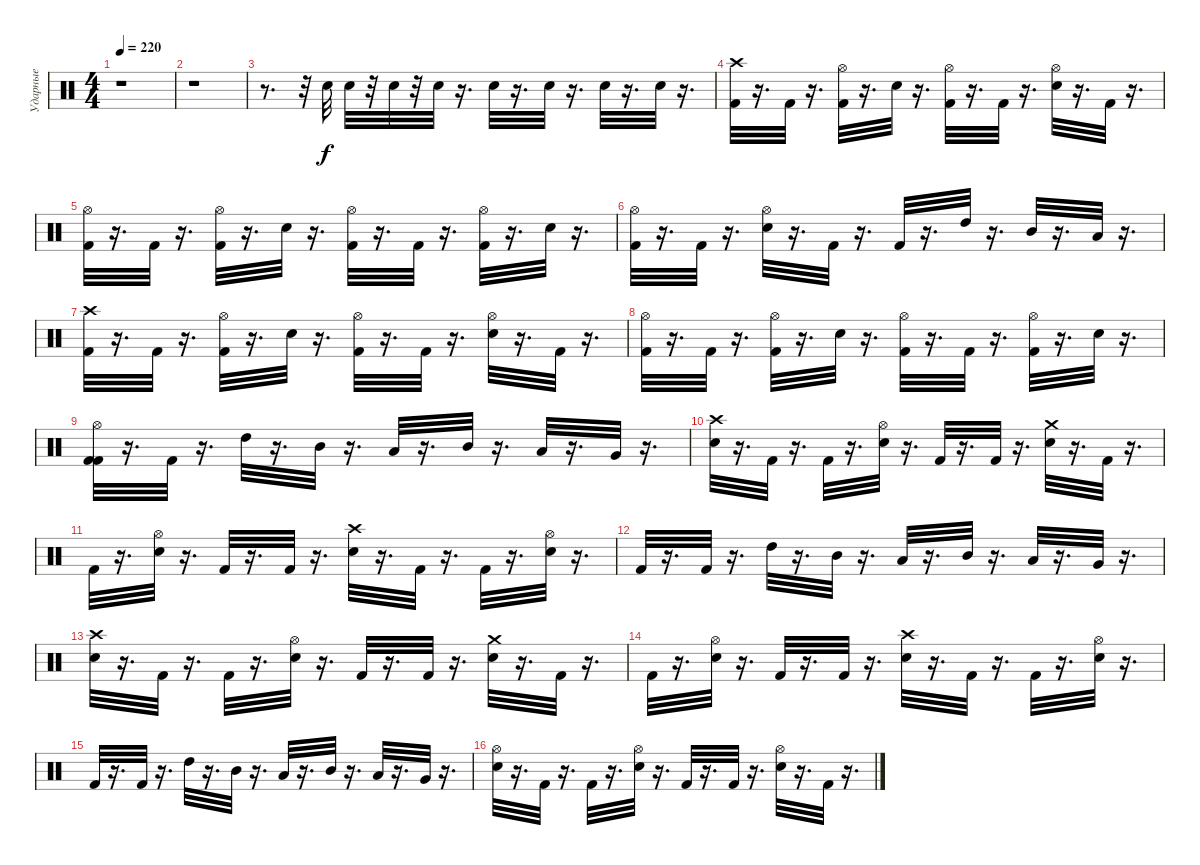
\track ("Ударные" "Ударные") {instrument percussion}
\staff {score}
\articulation defaults
\ts (4 4)
\tempo 220
\clef neutral
\ks c
r.1{dy ff} |
r.1 |
r.8{d} r.32 "Electric Snare (hit)".32{dy f} "Electric Snare (hit)".32 r.32 "Electric Snare (hit)".32 r.32 "Electric Snare (hit)".32 r.16{d} "Electric Snare (hit)".32 r.16{d} "Electric Snare (hit)".32 r.16{d} "Electric Snare (hit)".32 r.16{d} "Electric Snare (hit)".32 r.16{d} |
("Crash high (hit)" "Kick (hit) 2").32 r.16{d} "Kick (hit) 2".32 r.16{d} ("Hi-Hat (open)" "Kick (hit) 2").32 r.16{d} "Electric Snare (hit)".32 r.16{d} ("Hi-Hat (open)" "Kick (hit) 2").32 r.16{d} "Kick (hit) 2".32 r.16{d} ("Hi-Hat (open)" "Electric Snare (hit)").32 r.16{d} "Kick (hit) 2".32 r.16{d} |
("Hi-Hat (open)" "Kick (hit) 2").32 r.16{d} "Kick (hit) 2".32 r.16{d} ("Hi-Hat (open)" "Kick (hit) 2").32 r.16{d} "Electric Snare (hit)".32 r.16{d} ("Hi-Hat (open)" "Kick (hit) 2").32 r.16{d} "Kick (hit) 2".32 r.16{d} ("Hi-Hat (open)" "Kick (hit) 2").32 r.16{d} "Electric Snare (hit)".32 r.16{d} |
("Hi-Hat (open)" "Kick (hit) 2").32 r.16{d} "Kick (hit) 2".32 r.16{d} ("Hi-Hat (open)" "Electric Snare (hit)").32 r.16{d} "Kick (hit) 2".32 r.16{d} "Kick (hit) 2".32 r.16{d} "High Tom (hit)".32 r.16{d} "Mid Tom (hit)".32 r.16{d} "Low Tom (hit)".32 r.16{d} |
("Crash high (hit)" "Kick (hit) 2").32 r.16{d} "Kick (hit) 2".32 r.16{d} ("Hi-Hat (open)" "Kick (hit) 2").32 r.16{d} "Electric Snare (hit)".32 r.16{d} ("Hi-Hat (open)" "Kick (hit) 2").32 r.16{d} "Kick (hit) 2".32 r.16{d} ("Hi-Hat (open)" "Electric Snare (hit)").32 r.16{d} "Kick (hit) 2".32 r.16{d} |
("Hi-Hat (open)" "Kick (hit) 2").32 r.16{d} "Kick (hit) 2".32 r.16{d} ("Hi-Hat (open)" "Kick (hit) 2").32 r.16{d} "Electric Snare (hit)".32 r.16{d} ("Hi-Hat (open)" "Kick (hit) 2").32 r.16{d} "Kick (hit) 2".32 r.16{d} ("Hi-Hat (open)" "Kick (hit) 2").32 r.16{d} "Electric Snare (hit)".32 r.16{d} |
("Kick (hit) 2" "Hi-Hat (open)" "Kick (hit) 2").32 r.16{d} "Kick (hit) 2".32 r.16{d} "High Tom (hit)".32 r.16{d} "Mid Tom (hit)".32 r.16{d} "Low Tom (hit)".32 r.16{d} "Mid Tom (hit)".32 r.16{d} "Low Tom (hit)".32 r.16{d} "Very Low Tom (hit)".32 r.16{d} |
("Crash high (hit)" "Electric Snare (hit)").32 r.16{d} "Kick (hit) 2".32 r.16{d} "Kick (hit) 2".32 r.16{d} ("Hi-Hat (open)" "Electric Snare (hit)").32 r.16{d} "Kick (hit) 2".32 r.16{d} "Kick (hit) 2".32 r.16{d} ("Crash medium (hit)" "Electric Snare (hit)").32 r.16{d} "Kick (hit) 2".32 r.16{d} |
"Kick (hit) 2".32 r.16{d} ("Hi-Hat (open)" "Electric Snare (hit)").32 r.16{d} "Kick (hit) 2".32 r.16{d} "Kick (hit) 2".32 r.16{d} ("Crash high (hit)" "Electric Snare (hit)").32 r.16{d} "Kick (hit) 2".32 r.16{d} "Kick (hit) 2".32 r.16{d} ("Hi-Hat (open)" "Electric Snare (hit)").32 r.16{d} |
"Kick (hit) 2".32 r.16{d} "Kick (hit) 2".32 r.16{d} "High Tom (hit)".32 r.16{d} "Mid Tom (hit)".32 r.16{d} "Low Tom (hit)".32 r.16{d} "Mid Tom (hit)".32 r.16{d} "Low Tom (hit)".32 r.16{d} "Very Low Tom (hit)".32 r.16{d} |
("Crash high (hit)" "Electric Snare (hit)").32 r.16{d} "Kick (hit) 2".32 r.16{d} "Kick (hit) 2".32 r.16{d} ("Hi-Hat (open)" "Electric Snare (hit)").32 r.16{d} "Kick (hit) 2".32 r.16{d} "Kick (hit) 2".32 r.16{d} ("Crash medium (hit)" "Electric Snare (hit)").32 r.16{d} "Kick (hit) 2".32 r.16{d} |
"Kick (hit) 2".32 r.16{d} ("Hi-Hat (open)" "Electric Snare (hit)").32 r.16{d} "Kick (hit) 2".32 r.16{d} "Kick (hit) 2".32 r.16{d} ("Crash high (hit)" "Electric Snare (hit)").32 r.16{d} "Kick (hit) 2".32 r.16{d} "Kick (hit) 2".32 r.16{d} ("Hi-Hat (open)" "Electric Snare (hit)").32 r.16{d} |
"Kick (hit) 2".32 r.16{d} "Kick (hit) 2".32 r.16{d} "High Tom (hit)".32 r.16{d} "Mid Tom (hit)".32 r.16{d} "Low Tom (hit)".32 r.16{d} "Mid Tom (hit)".32 r.16{d} "Low Tom (hit)".32 r.16{d} "Very Low Tom (hit)".32 r.16{d} |
("Hi-Hat (open)" "Electric Snare (hit)").32 r.16{d} "Kick (hit) 2".32 r.16{d} "Kick (hit) 2".32 r.16{d} ("Electric Snare (hit)" "Hi-Hat (open)").32 r.16{d} "Kick (hit) 2".32 r.16{d} "Kick (hit) 2".32 r.16{d} ("Hi-Hat (open)" "Electric Snare (hit)").32 r.16{d} "Kick (hit) 2".32 r.16{d}
